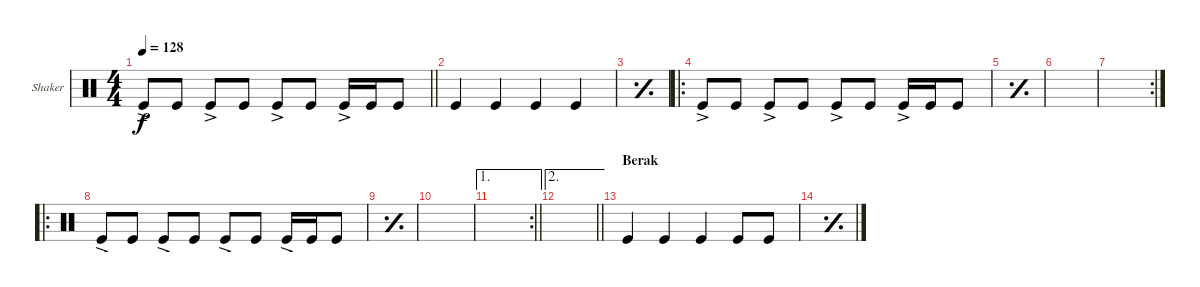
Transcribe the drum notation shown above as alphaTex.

\defaultSystemsLayout 4
\bracketExtendMode groupsimilarinstruments
\firstSystemTrackNameOrientation horizontal
\otherSystemsTrackNameOrientation horizontal
\track ("Shaker" "Shaker") {instrument percussion}
\staff {score}
\articulation defaults
\ts (4 4)
\tempo 128
\clef neutral
\scale
0.333333
\barLineRight lightlight
\ks c "Kick (hit)"{ac}.8{dy f} "Kick (hit)".8 "Kick (hit)"{ac}.8 "Kick (hit)".8 "Kick (hit)"{ac}.8 "Kick (hit)".8 "Kick (hit)"{ac}.16 "Kick (hit)".16 "Kick (hit)".8
|
\scale
0.333333 "Kick (hit)".4 "Kick (hit)".4 "Kick (hit)".4 "Kick (hit)".4 |
\simile simple
\scale
0.333333 |
\ro
\simile none
\scale
0.377049 "Kick (hit)"{ac}.8 "Kick (hit)".8 "Kick (hit)"{ac}.8 "Kick (hit)".8 "Kick (hit)"{ac}.8 "Kick (hit)".8 "Kick (hit)"{ac}.16 "Kick (hit)".16 "Kick (hit)".8 |
\simile simple
\scale
0.311475 |
\scale
0.311475 |
\rc 2
\scale
0.333333 |
\ro
\simile none
\scale
0.365079 "Kick (hit)"{ac}.8 "Kick (hit)".8 "Kick (hit)"{ac}.8 "Kick (hit)".8 "Kick (hit)"{ac}.8 "Kick (hit)".8 "Kick (hit)"{ac}.16 "Kick (hit)".16 "Kick (hit)".8 |
\simile simple
\scale
0.301587 |
\scale
0.322034 |
\ae 1
\rc 2
\scale
0.355932
\barLineRight lightlight
|
\ae 2
\scale
0.322034
\barLineRight lightlight
|
\section ("" "Berak")
\simile none
\scale
0.333333 "Kick (hit)".4 "Kick (hit)".4 "Kick (hit)".4 "Kick (hit)".8 "Kick (hit)".8 |
\simile simple
\scale
0.333333 |
\scale
0.333333 |
\scale
0.333333
